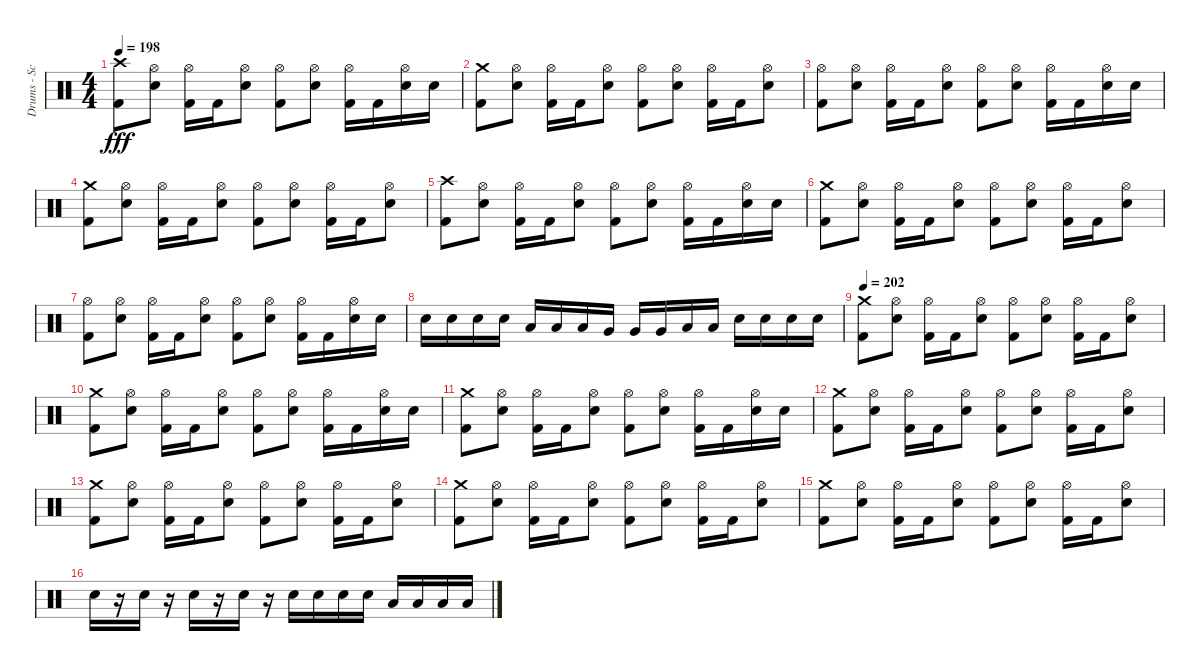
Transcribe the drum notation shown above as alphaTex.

\track ("Drums - Scott" "Drums - Sc") {instrument percussion}
\staff {score}
\articulation defaults
\ts (4 4)
\tempo 198
\clef neutral
\ks c
("Crash high (hit)" "Kick (hit) 2").8{dy fff} ("Hi-Hat (open)" "Electric Snare (hit)").8 ("Hi-Hat (open)" "Kick (hit) 2").16 "Kick (hit) 2".16 ("Hi-Hat (open)" "Electric Snare (hit)").8 ("Hi-Hat (open)" "Kick (hit) 2").8 ("Hi-Hat (open)" "Electric Snare (hit)").8 ("Hi-Hat (open)" "Kick (hit) 2").16 "Kick (hit) 2".16 ("Hi-Hat (open)" "Electric Snare (hit)").16 "Electric Snare (hit)".16 |
("Kick (hit) 2" "Crash medium (hit)").8 ("Hi-Hat (open)" "Electric Snare (hit)").8 ("Hi-Hat (open)" "Kick (hit) 2").16 "Kick (hit) 2".16 ("Hi-Hat (open)" "Electric Snare (hit)").8 ("Hi-Hat (open)" "Kick (hit) 2").8 ("Hi-Hat (open)" "Electric Snare (hit)").8 ("Hi-Hat (open)" "Kick (hit) 2").16 "Kick (hit) 2".16 ("Hi-Hat (open)" "Electric Snare (hit)").8 |
("Hi-Hat (open)" "Kick (hit) 2").8 ("Hi-Hat (open)" "Electric Snare (hit)").8 ("Hi-Hat (open)" "Kick (hit) 2").16 "Kick (hit) 2".16 ("Hi-Hat (open)" "Electric Snare (hit)").8 ("Hi-Hat (open)" "Kick (hit) 2").8 ("Hi-Hat (open)" "Electric Snare (hit)").8 ("Hi-Hat (open)" "Kick (hit) 2").16 "Kick (hit) 2".16 ("Hi-Hat (open)" "Electric Snare (hit)").16 "Electric Snare (hit)".16 |
("Kick (hit) 2" "Crash medium (hit)").8 ("Hi-Hat (open)" "Electric Snare (hit)").8 ("Hi-Hat (open)" "Kick (hit) 2").16 "Kick (hit) 2".16 ("Hi-Hat (open)" "Electric Snare (hit)").8 ("Hi-Hat (open)" "Kick (hit) 2").8 ("Hi-Hat (open)" "Electric Snare (hit)").8 ("Hi-Hat (open)" "Kick (hit) 2").16 "Kick (hit) 2".16 ("Hi-Hat (open)" "Electric Snare (hit)").8 |
("Crash high (hit)" "Kick (hit) 2").8 ("Hi-Hat (open)" "Electric Snare (hit)").8 ("Hi-Hat (open)" "Kick (hit) 2").16 "Kick (hit) 2".16 ("Hi-Hat (open)" "Electric Snare (hit)").8 ("Hi-Hat (open)" "Kick (hit) 2").8 ("Hi-Hat (open)" "Electric Snare (hit)").8 ("Hi-Hat (open)" "Kick (hit) 2").16 "Kick (hit) 2".16 ("Hi-Hat (open)" "Electric Snare (hit)").16 "Electric Snare (hit)".16 |
("Kick (hit) 2" "Crash medium (hit)").8 ("Hi-Hat (open)" "Electric Snare (hit)").8 ("Hi-Hat (open)" "Kick (hit) 2").16 "Kick (hit) 2".16 ("Hi-Hat (open)" "Electric Snare (hit)").8 ("Hi-Hat (open)" "Kick (hit) 2").8 ("Hi-Hat (open)" "Electric Snare (hit)").8 ("Hi-Hat (open)" "Kick (hit) 2").16 "Kick (hit) 2".16 ("Hi-Hat (open)" "Electric Snare (hit)").8 |
("Hi-Hat (open)" "Kick (hit) 2").8 ("Hi-Hat (open)" "Electric Snare (hit)").8 ("Hi-Hat (open)" "Kick (hit) 2").16 "Kick (hit) 2".16 ("Hi-Hat (open)" "Electric Snare (hit)").8 ("Hi-Hat (open)" "Kick (hit) 2").8 ("Hi-Hat (open)" "Electric Snare (hit)").8 ("Hi-Hat (open)" "Kick (hit) 2").16 "Kick (hit) 2".16 ("Hi-Hat (open)" "Electric Snare (hit)").16 "Electric Snare (hit)".16 |
"Electric Snare (hit)".16 "Electric Snare (hit)".16 "Electric Snare (hit)".16 "Electric Snare (hit)".16 "Low Tom (hit)".16 "Low Tom (hit)".16 "Low Tom (hit)".16 "Very Low Tom (hit)".16 "Very Low Tom (hit)".16 "Very Low Tom (hit)".16 "Low Floor Tom (hit)".16 "Low Floor Tom (hit)".16 "Electric Snare (hit)".16 "Electric Snare (hit)".16 "Electric Snare (hit)".16 "Electric Snare (hit)".16 |
\tempo 202
("Kick (hit) 2" "Crash medium (hit)").8 ("Hi-Hat (open)" "Electric Snare (hit)").8 ("Hi-Hat (open)" "Kick (hit) 2").16 "Kick (hit) 2".16 ("Hi-Hat (open)" "Electric Snare (hit)").8 ("Hi-Hat (open)" "Kick (hit) 2").8 ("Hi-Hat (open)" "Electric Snare (hit)").8 ("Hi-Hat (open)" "Kick (hit) 2").16 "Kick (hit) 2".16 ("Hi-Hat (open)" "Electric Snare (hit)").8 |
("Kick (hit) 2" "Crash medium (hit)").8 ("Hi-Hat (open)" "Electric Snare (hit)").8 ("Hi-Hat (open)" "Kick (hit) 2").16 "Kick (hit) 2".16 ("Hi-Hat (open)" "Electric Snare (hit)").8 ("Hi-Hat (open)" "Kick (hit) 2").8 ("Hi-Hat (open)" "Electric Snare (hit)").8 ("Hi-Hat (open)" "Kick (hit) 2").16 "Kick (hit) 2".16 ("Hi-Hat (open)" "Electric Snare (hit)").16 "Electric Snare (hit)".16 |
("Kick (hit) 2" "Crash medium (hit)").8 ("Hi-Hat (open)" "Electric Snare (hit)").8 ("Hi-Hat (open)" "Kick (hit) 2").16 "Kick (hit) 2".16 ("Hi-Hat (open)" "Electric Snare (hit)").8 ("Hi-Hat (open)" "Kick (hit) 2").8 ("Hi-Hat (open)" "Electric Snare (hit)").8 ("Hi-Hat (open)" "Kick (hit) 2").16 "Kick (hit) 2".16 ("Hi-Hat (open)" "Electric Snare (hit)").16 "Electric Snare (hit)".16 |
("Kick (hit) 2" "Crash medium (hit)").8 ("Hi-Hat (open)" "Electric Snare (hit)").8 ("Hi-Hat (open)" "Kick (hit) 2").16 "Kick (hit) 2".16 ("Hi-Hat (open)" "Electric Snare (hit)").8 ("Hi-Hat (open)" "Kick (hit) 2").8 ("Hi-Hat (open)" "Electric Snare (hit)").8 ("Hi-Hat (open)" "Kick (hit) 2").16 "Kick (hit) 2".16 ("Hi-Hat (open)" "Electric Snare (hit)").8 |
("Kick (hit) 2" "Crash medium (hit)").8 ("Hi-Hat (open)" "Electric Snare (hit)").8 ("Hi-Hat (open)" "Kick (hit) 2").16 "Kick (hit) 2".16 ("Hi-Hat (open)" "Electric Snare (hit)").8 ("Hi-Hat (open)" "Kick (hit) 2").8 ("Hi-Hat (open)" "Electric Snare (hit)").8 ("Hi-Hat (open)" "Kick (hit) 2").16 "Kick (hit) 2".16 ("Hi-Hat (open)" "Electric Snare (hit)").8 |
("Kick (hit) 2" "Crash medium (hit)").8 ("Hi-Hat (open)" "Electric Snare (hit)").8 ("Hi-Hat (open)" "Kick (hit) 2").16 "Kick (hit) 2".16 ("Hi-Hat (open)" "Electric Snare (hit)").8 ("Hi-Hat (open)" "Kick (hit) 2").8 ("Hi-Hat (open)" "Electric Snare (hit)").8 ("Hi-Hat (open)" "Kick (hit) 2").16 "Kick (hit) 2".16 ("Hi-Hat (open)" "Electric Snare (hit)").8 |
("Kick (hit) 2" "Crash medium (hit)").8 ("Hi-Hat (open)" "Electric Snare (hit)").8 ("Hi-Hat (open)" "Kick (hit) 2").16 "Kick (hit) 2".16 ("Hi-Hat (open)" "Electric Snare (hit)").8 ("Hi-Hat (open)" "Kick (hit) 2").8 ("Hi-Hat (open)" "Electric Snare (hit)").8 ("Hi-Hat (open)" "Kick (hit) 2").16 "Kick (hit) 2".16 ("Hi-Hat (open)" "Electric Snare (hit)").8 |
"Electric Snare (hit)".16 r.16 "Electric Snare (hit)".16 r.16 "Electric Snare (hit)".16 r.16 "Electric Snare (hit)".16 r.16 "Electric Snare (hit)".16 "Electric Snare (hit)".16 "Electric Snare (hit)".16 "Electric Snare (hit)".16 "Low Tom (hit)".16 "Low Tom (hit)".16 "Low Tom (hit)".16 "Low Tom (hit)".16
